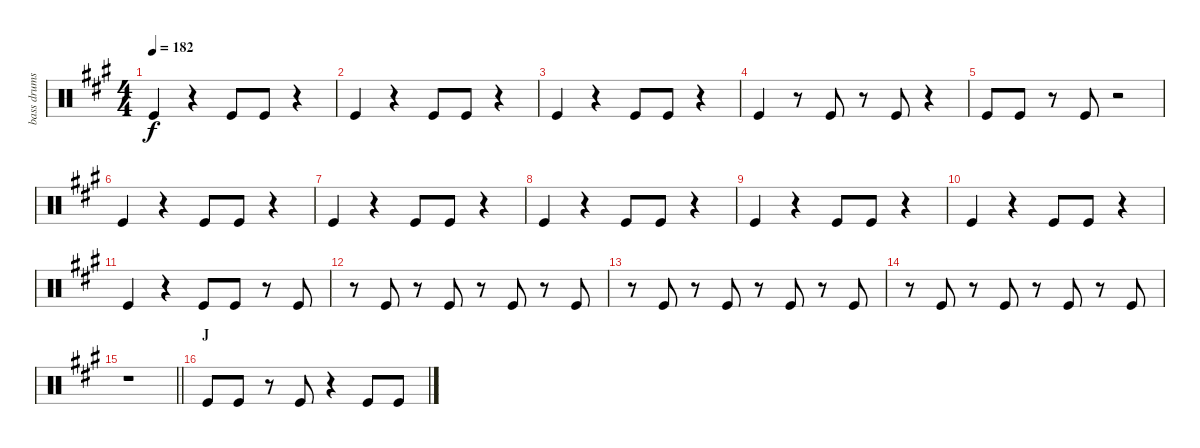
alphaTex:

\track ("bass drums" "bass drums") {instrument percussion}
\staff {score}
\articulation defaults
\ts (4 4)
\tempo 182
\clef neutral
\ks f#minor "Kick (hit)".4{dy f}
r.4 "Kick (hit)".8 "Kick (hit)".8 r.4 |
"Kick (hit)".4 r.4 "Kick (hit)".8 "Kick (hit)".8 r.4 |
"Kick (hit)".4 r.4 "Kick (hit)".8 "Kick (hit)".8 r.4 |
"Kick (hit)".4 r.8 "Kick (hit)".8 r.8 "Kick (hit)".8 r.4 |
"Kick (hit)".8 "Kick (hit)".8 r.8 "Kick (hit)".8 r.2 |
"Kick (hit)".4 r.4 "Kick (hit)".8 "Kick (hit)".8 r.4 |
"Kick (hit)".4 r.4 "Kick (hit)".8 "Kick (hit)".8 r.4 |
"Kick (hit)".4 r.4 "Kick (hit)".8 "Kick (hit)".8 r.4 |
"Kick (hit)".4 r.4 "Kick (hit)".8 "Kick (hit)".8 r.4 |
"Kick (hit)".4 r.4 "Kick (hit)".8 "Kick (hit)".8 r.4 |
"Kick (hit)".4 r.4 "Kick (hit)".8 "Kick (hit)".8 r.8 "Kick (hit)".8 |
r.8 "Kick (hit)".8 r.8 "Kick (hit)".8 r.8 "Kick (hit)".8 r.8 "Kick (hit)".8 |
r.8 "Kick (hit)".8 r.8 "Kick (hit)".8 r.8 "Kick (hit)".8 r.8 "Kick (hit)".8 |
r.8 "Kick (hit)".8 r.8 "Kick (hit)".8 r.8 "Kick (hit)".8 r.8 "Kick (hit)".8 |
\barLineRight lightlight
r.1 |
\section ("" "J")
"Kick (hit)".8 "Kick (hit)".8 r.8 "Kick (hit)".8 r.4 "Kick (hit)".8 "Kick (hit)".8
